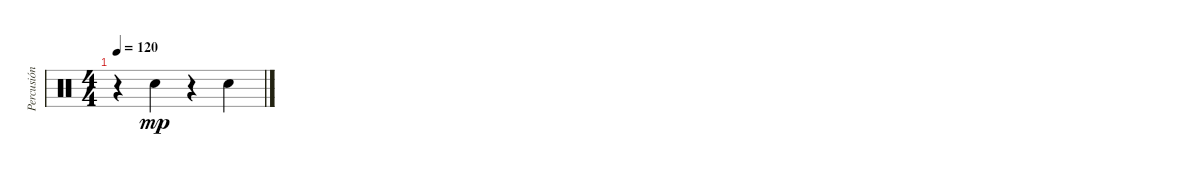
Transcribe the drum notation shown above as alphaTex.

\track ("Percusión" "Percusión") {instrument percussion}
\staff {score}
\articulation defaults
\ts (4 4)
\tempo 120
\clef neutral
\ks c
r.4{dy mp} "Electric Snare (hit)".4 r.4 "Electric Snare (hit)".4
